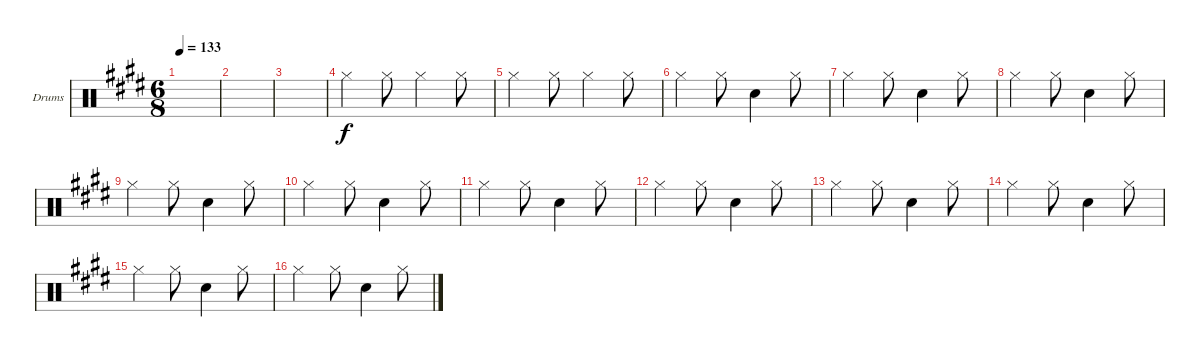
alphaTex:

\defaultSystemsLayout 4
\bracketExtendMode groupsimilarinstruments
\firstSystemTrackNameOrientation horizontal
\otherSystemsTrackNameOrientation horizontal
\track ("Drumkit" "Drums") {instrument percussion}
\staff {score}
\articulation defaults
\ts (6 8)
\tempo 133
\clef neutral
\scale
0.381132
\ks e
|
\scale
0.211321 |
\scale
0.407547 |
\scale
0.333333 "Hi-Hat (closed)".4 "Hi-Hat (closed)".8 "Hi-Hat (closed)".4 "Hi-Hat (closed)".8 |
\scale
0.333333 "Hi-Hat (closed)".4 "Hi-Hat (closed)".8 "Hi-Hat (closed)".4 "Hi-Hat (closed)".8 |
\scale
0.333333 "Hi-Hat (closed)".4 "Hi-Hat (closed)".8 "Snare (hit) 2".4 "Hi-Hat (closed)".8 |
\scale
0.333333 "Hi-Hat (closed)".4 "Hi-Hat (closed)".8 "Snare (hit) 2".4 "Hi-Hat (closed)".8 |
\scale
0.333333 "Hi-Hat (closed)".4 "Hi-Hat (closed)".8 "Snare (hit) 2".4 "Hi-Hat (closed)".8 |
\scale
0.333333 "Hi-Hat (closed)".4 "Hi-Hat (closed)".8 "Snare (hit) 2".4 "Hi-Hat (closed)".8 |
\scale
0.333333 "Hi-Hat (closed)".4 "Hi-Hat (closed)".8 "Snare (hit) 2".4 "Hi-Hat (closed)".8 |
\scale
0.333333 "Hi-Hat (closed)".4 "Hi-Hat (closed)".8 "Snare (hit) 2".4 "Hi-Hat (closed)".8 |
\scale
0.333333 "Hi-Hat (closed)".4 "Hi-Hat (closed)".8 "Snare (hit) 2".4 "Hi-Hat (closed)".8 |
\scale
0.333333 "Hi-Hat (closed)".4 "Hi-Hat (closed)".8 "Snare (hit) 2".4 "Hi-Hat (closed)".8 |
\scale
0.333333 "Hi-Hat (closed)".4 "Hi-Hat (closed)".8 "Snare (hit) 2".4 "Hi-Hat (closed)".8 |
\scale
0.333333 "Hi-Hat (closed)".4 "Hi-Hat (closed)".8 "Snare (hit) 2".4 "Hi-Hat (closed)".8 |
\scale
0.333333 "Hi-Hat (closed)".4 "Hi-Hat (closed)".8 "Snare (hit) 2".4 "Hi-Hat (closed)".8
